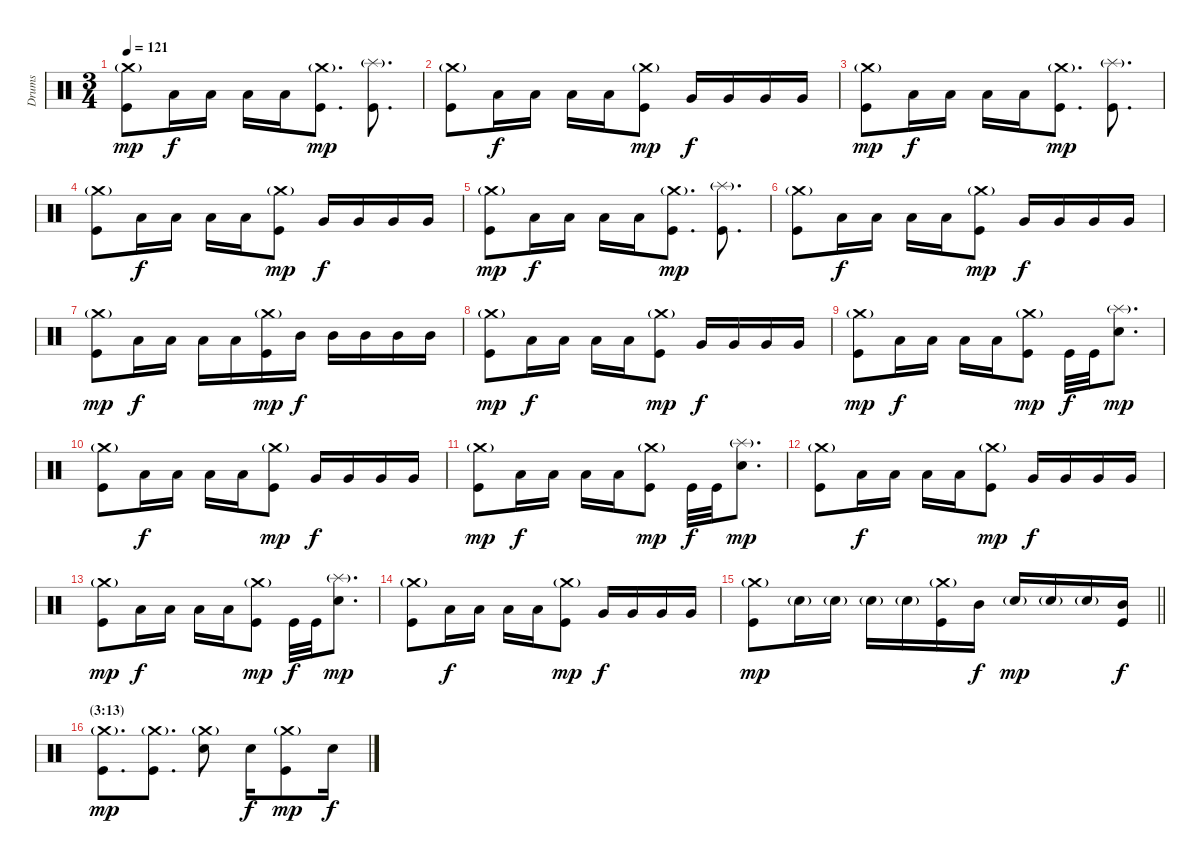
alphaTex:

\track ("Drums" "Drums") {instrument percussion}
\staff {score}
\articulation defaults
\ts (3 4)
\tempo 121
\clef neutral
\ks c
("Crash medium (hit)"{g} "Kick (hit)").8{dy mp} "Low Floor Tom (hit)".16{dy f} "Low Floor Tom (hit)".16 "Low Floor Tom (hit)".16 "Low Floor Tom (hit)".16 ("Crash medium (hit)"{g} "Kick (hit)").8{d dy mp} ("Splash (hit)"{g} "Kick (hit)").8{d} |
("Crash medium (hit)"{g} "Kick (hit)").8 "Low Tom (hit)".16{dy f} "Low Tom (hit)".16 "Low Tom (hit)".16 "Low Tom (hit)".16 ("Crash medium (hit)"{g} "Kick (hit)").8{dy mp} "Very Low Tom (hit)".16{dy f} "Very Low Tom (hit)".16 "Very Low Tom (hit)".16 "Very Low Tom (hit)".16 |
("Crash medium (hit)"{g} "Kick (hit)").8{dy mp} "Low Floor Tom (hit)".16{dy f} "Low Floor Tom (hit)".16 "Low Floor Tom (hit)".16 "Low Floor Tom (hit)".16 ("Crash medium (hit)"{g} "Kick (hit)").8{d dy mp} ("Splash (hit)"{g} "Kick (hit)").8{d} |
("Crash medium (hit)"{g} "Kick (hit)").8 "Low Tom (hit)".16{dy f} "Low Tom (hit)".16 "Low Tom (hit)".16 "Low Tom (hit)".16 ("Crash medium (hit)"{g} "Kick (hit)").8{dy mp} "Very Low Tom (hit)".16{dy f} "Very Low Tom (hit)".16 "Very Low Tom (hit)".16 "Very Low Tom (hit)".16 |
("Crash medium (hit)"{g} "Kick (hit)").8{dy mp} "Low Floor Tom (hit)".16{dy f} "Low Floor Tom (hit)".16 "Low Floor Tom (hit)".16 "Low Floor Tom (hit)".16 ("Crash medium (hit)"{g} "Kick (hit)").8{d dy mp} ("Splash (hit)"{g} "Kick (hit)").8{d} |
("Crash medium (hit)"{g} "Kick (hit)").8 "Low Tom (hit)".16{dy f} "Low Tom (hit)".16 "Low Tom (hit)".16 "Low Tom (hit)".16 ("Crash medium (hit)"{g} "Kick (hit)").8{dy mp} "Very Low Tom (hit)".16{dy f} "Very Low Tom (hit)".16 "Very Low Tom (hit)".16 "Very Low Tom (hit)".16 |
("Crash medium (hit)"{g} "Kick (hit)").8{dy mp} "Low Floor Tom (hit)".16{dy f} "Low Floor Tom (hit)".16 "Low Floor Tom (hit)".16 "Low Floor Tom (hit)".16 ("Crash medium (hit)"{g} "Kick (hit)").16{dy mp} "Mid Tom (hit)".16{dy f} "Mid Tom (hit)".16 "Mid Tom (hit)".16 "Mid Tom (hit)".16 "Mid Tom (hit)".16 |
("Crash medium (hit)"{g} "Kick (hit)").8{dy mp} "Low Tom (hit)".16{dy f} "Low Tom (hit)".16 "Low Tom (hit)".16 "Low Tom (hit)".16 ("Crash medium (hit)"{g} "Kick (hit)").8{dy mp} "Very Low Tom (hit)".16{dy f} "Very Low Tom (hit)".16 "Very Low Tom (hit)".16 "Very Low Tom (hit)".16 |
("Crash medium (hit)"{g} "Kick (hit)").8{dy mp} "Low Floor Tom (hit)".16{dy f} "Low Floor Tom (hit)".16 "Low Floor Tom (hit)".16 "Low Floor Tom (hit)".16 ("Crash medium (hit)"{g} "Kick (hit)").8{dy mp} "Kick (hit)".32{dy f} "Kick (hit)".32 ("Splash (hit)"{g} "Snare (hit) 2").8{d dy mp} |
("Crash medium (hit)"{g} "Kick (hit)").8 "Low Tom (hit)".16{dy f} "Low Tom (hit)".16 "Low Tom (hit)".16 "Low Tom (hit)".16 ("Crash medium (hit)"{g} "Kick (hit)").8{dy mp} "Very Low Tom (hit)".16{dy f} "Very Low Tom (hit)".16 "Very Low Tom (hit)".16 "Very Low Tom (hit)".16 |
("Crash medium (hit)"{g} "Kick (hit)").8{dy mp} "Low Floor Tom (hit)".16{dy f} "Low Floor Tom (hit)".16 "Low Floor Tom (hit)".16 "Low Floor Tom (hit)".16 ("Crash medium (hit)"{g} "Kick (hit)").8{dy mp} "Kick (hit)".32{dy f} "Kick (hit)".32 ("Splash (hit)"{g} "Snare (hit) 2").8{d dy mp} |
("Crash medium (hit)"{g} "Kick (hit)").8 "Low Tom (hit)".16{dy f} "Low Tom (hit)".16 "Low Tom (hit)".16 "Low Tom (hit)".16 ("Crash medium (hit)"{g} "Kick (hit)").8{dy mp} "Very Low Tom (hit)".16{dy f} "Very Low Tom (hit)".16 "Very Low Tom (hit)".16 "Very Low Tom (hit)".16 |
("Crash medium (hit)"{g} "Kick (hit)").8{dy mp} "Low Floor Tom (hit)".16{dy f} "Low Floor Tom (hit)".16 "Low Floor Tom (hit)".16 "Low Floor Tom (hit)".16 ("Crash medium (hit)"{g} "Kick (hit)").8{dy mp} "Kick (hit)".32{dy f} "Kick (hit)".32 ("Splash (hit)"{g} "Snare (hit) 2").8{d dy mp} |
("Crash medium (hit)"{g} "Kick (hit)").8 "Low Tom (hit)".16{dy f} "Low Tom (hit)".16 "Low Tom (hit)".16 "Low Tom (hit)".16 ("Crash medium (hit)"{g} "Kick (hit)").8{dy mp} "Very Low Tom (hit)".16{dy f} "Very Low Tom (hit)".16 "Very Low Tom (hit)".16 "Very Low Tom (hit)".16 |
\barLineRight lightlight
("Crash medium (hit)"{g} "Kick (hit)").8{dy mp} "Snare (hit) 2"{g}.16 "Snare (hit) 2"{g}.16 "Snare (hit) 2"{g}.16 "Snare (hit) 2"{g}.16 ("Crash medium (hit)"{g} "Kick (hit)").16 "Mid Tom (hit)".16{dy f} "Snare (hit) 2"{g}.16{dy mp} "Snare (hit) 2"{g}.16 "Snare (hit) 2"{g}.16 ("Mid Tom (hit)" "Kick (hit)").16{dy f} |
\section ("" "(3:13)")
("Crash medium (hit)"{g} "Kick (hit)").8{d dy mp} ("Crash medium (hit)"{g} "Kick (hit)").8{d} ("Crash medium (hit)"{g} "Snare (hit) 2").8 "Snare (hit) 2".16{dy f} ("Crash medium (hit)"{g} "Kick (hit)").8{dy mp} "Snare (hit) 2".16{dy f}
